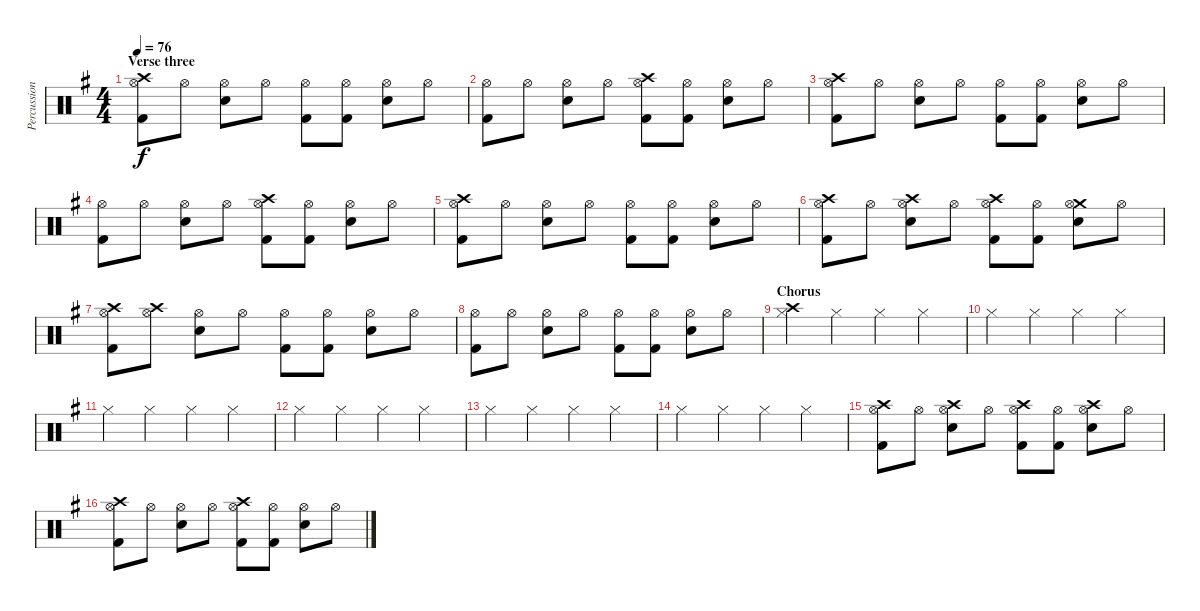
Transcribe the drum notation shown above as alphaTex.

\track ("Percussions" "Percussion") {instrument percussion}
\staff {score}
\articulation defaults
\ts (4 4)
\section ("" "Verse three")
\tempo 76
\clef neutral
\ks g
("Crash high (hit)" "Kick (hit) 2" "Hi-Hat (open)").8{dy f} "Hi-Hat (open)".8 ("Hi-Hat (open)" "Snare (hit) 2").8 "Hi-Hat (open)".8 ("Kick (hit) 2" "Hi-Hat (open)").8 ("Kick (hit) 2" "Hi-Hat (open)").8 ("Hi-Hat (open)" "Snare (hit) 2").8 "Hi-Hat (open)".8 |
("Kick (hit) 2" "Hi-Hat (open)").8 "Hi-Hat (open)".8 ("Hi-Hat (open)" "Snare (hit) 2").8 "Hi-Hat (open)".8 ("Crash high (hit)" "Kick (hit) 2" "Hi-Hat (open)").8 ("Kick (hit) 2" "Hi-Hat (open)").8 ("Hi-Hat (open)" "Snare (hit) 2").8 "Hi-Hat (open)".8 |
("Crash high (hit)" "Kick (hit) 2" "Hi-Hat (open)").8 "Hi-Hat (open)".8 ("Hi-Hat (open)" "Snare (hit) 2").8 "Hi-Hat (open)".8 ("Kick (hit) 2" "Hi-Hat (open)").8 ("Kick (hit) 2" "Hi-Hat (open)").8 ("Hi-Hat (open)" "Snare (hit) 2").8 "Hi-Hat (open)".8 |
("Kick (hit) 2" "Hi-Hat (open)").8 "Hi-Hat (open)".8 ("Hi-Hat (open)" "Snare (hit) 2").8 "Hi-Hat (open)".8 ("Crash high (hit)" "Kick (hit) 2" "Hi-Hat (open)").8 ("Kick (hit) 2" "Hi-Hat (open)").8 ("Hi-Hat (open)" "Snare (hit) 2").8 "Hi-Hat (open)".8 |
("Crash high (hit)" "Kick (hit) 2" "Hi-Hat (open)").8 "Hi-Hat (open)".8 ("Hi-Hat (open)" "Snare (hit) 2").8 "Hi-Hat (open)".8 ("Kick (hit) 2" "Hi-Hat (open)").8 ("Kick (hit) 2" "Hi-Hat (open)").8 ("Hi-Hat (open)" "Snare (hit) 2").8 "Hi-Hat (open)".8 |
("Crash high (hit)" "Kick (hit) 2" "Hi-Hat (open)").8 "Hi-Hat (open)".8 ("Crash high (hit)" "Hi-Hat (open)" "Snare (hit) 2").8 "Hi-Hat (open)".8 ("Crash high (hit)" "Kick (hit) 2" "Hi-Hat (open)").8 ("Kick (hit) 2" "Hi-Hat (open)").8 ("Crash medium (hit)" "Hi-Hat (open)" "Snare (hit) 2").8 "Hi-Hat (open)".8 |
("Crash high (hit)" "Kick (hit) 2" "Hi-Hat (open)").8 ("Crash high (hit)" "Hi-Hat (open)").8 ("Hi-Hat (open)" "Snare (hit) 2").8 "Hi-Hat (open)".8 ("Kick (hit) 2" "Hi-Hat (open)").8 ("Kick (hit) 2" "Hi-Hat (open)").8 ("Hi-Hat (open)" "Snare (hit) 2").8 "Hi-Hat (open)".8 |
("Kick (hit) 2" "Hi-Hat (open)").8 "Hi-Hat (open)".8 ("Hi-Hat (open)" "Snare (hit) 2").8 "Hi-Hat (open)".8 ("Kick (hit) 2" "Hi-Hat (open)").8 ("Kick (hit) 2" "Hi-Hat (open)").8 ("Hi-Hat (open)" "Snare (hit) 2").8 "Hi-Hat (open)".8 |
\section ("" "Chorus")
("Crash high (hit)" "Hi-Hat (closed)").4 "Hi-Hat (closed)".4 "Hi-Hat (closed)".4 "Hi-Hat (closed)".4 |
"Hi-Hat (closed)".4 "Hi-Hat (closed)".4 "Hi-Hat (closed)".4 "Hi-Hat (closed)".4 |
"Hi-Hat (closed)".4 "Hi-Hat (closed)".4 "Hi-Hat (closed)".4 "Hi-Hat (closed)".4 |
"Hi-Hat (closed)".4 "Hi-Hat (closed)".4 "Hi-Hat (closed)".4 "Hi-Hat (closed)".4 |
"Hi-Hat (closed)".4 "Hi-Hat (closed)".4 "Hi-Hat (closed)".4 "Hi-Hat (closed)".4 |
"Hi-Hat (closed)".4 "Hi-Hat (closed)".4 "Hi-Hat (closed)".4 "Hi-Hat (closed)".4 |
("Crash high (hit)" "Kick (hit) 2" "Hi-Hat (open)").8 "Hi-Hat (open)".8 ("Crash high (hit)" "Hi-Hat (open)" "Snare (hit) 2").8 "Hi-Hat (open)".8 ("Crash high (hit)" "Kick (hit) 2" "Hi-Hat (open)").8 ("Kick (hit) 2" "Hi-Hat (open)").8 ("Crash high (hit)" "Hi-Hat (open)" "Snare (hit) 2").8 "Hi-Hat (open)".8 |
("Crash high (hit)" "Kick (hit) 2" "Hi-Hat (open)").8 "Hi-Hat (open)".8 ("Hi-Hat (open)" "Snare (hit) 2").8 "Hi-Hat (open)".8 ("Crash high (hit)" "Kick (hit) 2" "Hi-Hat (open)").8 ("Kick (hit) 2" "Hi-Hat (open)").8 ("Hi-Hat (open)" "Snare (hit) 2").8 "Hi-Hat (open)".8
